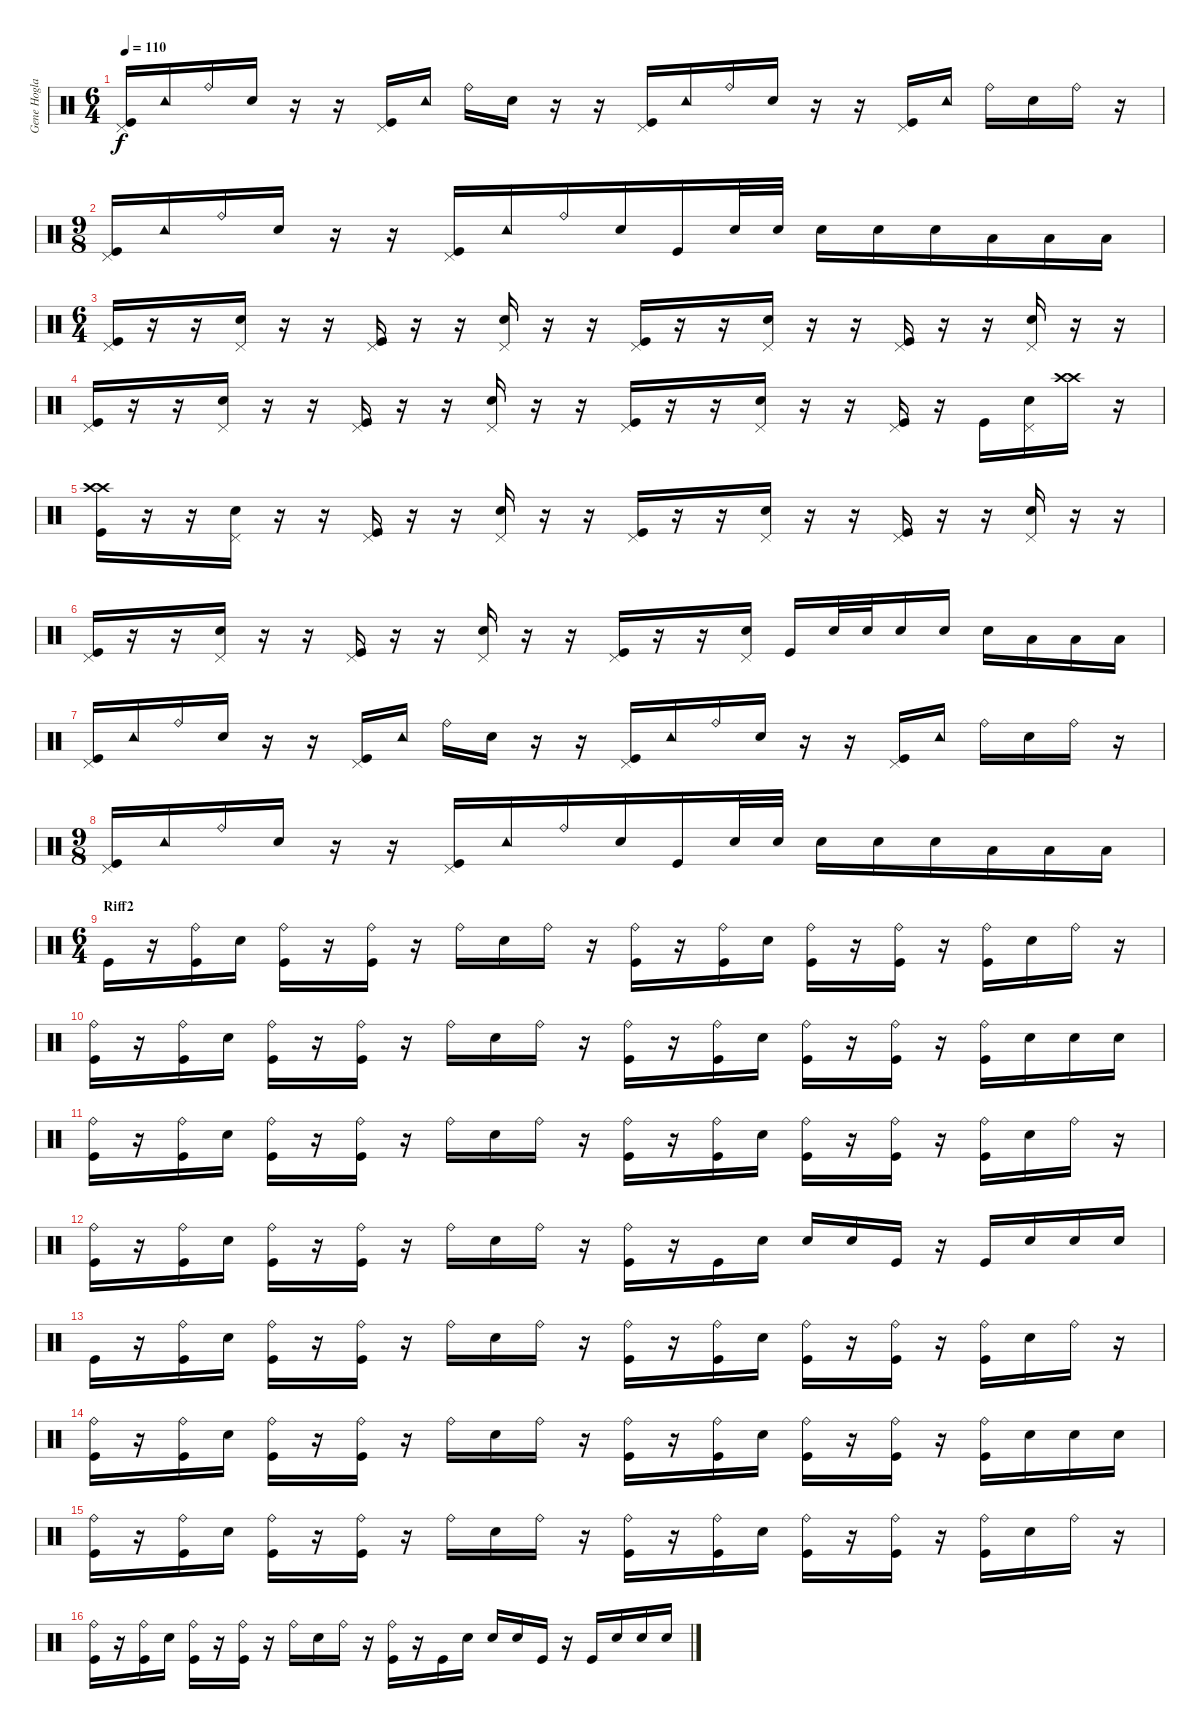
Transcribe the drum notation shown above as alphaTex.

\track ("Gene Hoglan" "Gene Hogla") {instrument percussion}
\staff {score}
\articulation defaults
\ts (6 4)
\tempo 110
\clef neutral
\ks c
("Pedal Hi-Hat (hit)" "Kick (hit)").16{dy f} "Tambourine (hit)".16 "Ride (bell)".16 "Snare (hit) 2".16 r.16 r.16 ("Pedal Hi-Hat (hit)" "Kick (hit)").16 "Tambourine (hit)".16 "Ride (bell)".16 "Snare (hit) 2".16 r.16 r.16 ("Pedal Hi-Hat (hit)" "Kick (hit)").16 "Tambourine (hit)".16 "Ride (bell)".16 "Snare (hit) 2".16 r.16 r.16 ("Pedal Hi-Hat (hit)" "Kick (hit)").16 "Tambourine (hit)".16 "Ride (bell)".16 "Snare (hit) 2".16 "Ride (bell)".16 r.16 |
\ts (9 8)
("Pedal Hi-Hat (hit)" "Kick (hit)").16 "Tambourine (hit)".16 "Ride (bell)".16 "Snare (hit) 2".16 r.16 r.16 ("Pedal Hi-Hat (hit)" "Kick (hit)").16 "Tambourine (hit)".16 "Ride (bell)".16 "Snare (hit) 2".16 "Kick (hit)".16 "Snare (hit) 2".32 "Snare (hit) 2".32 "Snare (hit) 2".16 "Snare (hit) 2".16 "Snare (hit) 2".16 "Low Tom (hit)".16 "Low Tom (hit)".16 "Low Tom (hit)".16 |
\ts (6 4)
("Pedal Hi-Hat (hit)" "Kick (hit)").16 r.16 r.16 ("Pedal Hi-Hat (hit)" "Snare (hit) 2").16 r.16 r.16 ("Pedal Hi-Hat (hit)" "Kick (hit)").16 r.16 r.16 ("Pedal Hi-Hat (hit)" "Snare (hit) 2").16 r.16 r.16 ("Pedal Hi-Hat (hit)" "Kick (hit)").16 r.16 r.16 ("Pedal Hi-Hat (hit)" "Snare (hit) 2").16 r.16 r.16 ("Pedal Hi-Hat (hit)" "Kick (hit)").16 r.16 r.16 ("Pedal Hi-Hat (hit)" "Snare (hit) 2").16 r.16 r.16 |
("Pedal Hi-Hat (hit)" "Kick (hit)").16 r.16 r.16 ("Pedal Hi-Hat (hit)" "Snare (hit) 2").16 r.16 r.16 ("Pedal Hi-Hat (hit)" "Kick (hit)").16 r.16 r.16 ("Pedal Hi-Hat (hit)" "Snare (hit) 2").16 r.16 r.16 ("Pedal Hi-Hat (hit)" "Kick (hit)").16 r.16 r.16 ("Pedal Hi-Hat (hit)" "Snare (hit) 2").16 r.16 r.16 ("Pedal Hi-Hat (hit)" "Kick (hit)").16 r.16 "Kick (hit)".16 ("Pedal Hi-Hat (hit)" "Snare (hit) 2").16 ("Crash high (hit)" "Crash high (hit)").16 r.16 |
("Crash high (hit)" "Crash high (hit)" "Kick (hit)").16 r.16 r.16 ("Pedal Hi-Hat (hit)" "Snare (hit) 2").16 r.16 r.16 ("Pedal Hi-Hat (hit)" "Kick (hit)").16 r.16 r.16 ("Pedal Hi-Hat (hit)" "Snare (hit) 2").16 r.16 r.16 ("Pedal Hi-Hat (hit)" "Kick (hit)").16 r.16 r.16 ("Pedal Hi-Hat (hit)" "Snare (hit) 2").16 r.16 r.16 ("Pedal Hi-Hat (hit)" "Kick (hit)").16 r.16 r.16 ("Pedal Hi-Hat (hit)" "Snare (hit) 2").16 r.16 r.16 |
("Pedal Hi-Hat (hit)" "Kick (hit)").16 r.16 r.16 ("Pedal Hi-Hat (hit)" "Snare (hit) 2").16 r.16 r.16 ("Pedal Hi-Hat (hit)" "Kick (hit)").16 r.16 r.16 ("Pedal Hi-Hat (hit)" "Snare (hit) 2").16 r.16 r.16 ("Pedal Hi-Hat (hit)" "Kick (hit)").16 r.16 r.16 ("Pedal Hi-Hat (hit)" "Snare (hit) 2").16 "Kick (hit)".16 "Snare (hit) 2".32 "Snare (hit) 2".32 "Snare (hit) 2".16 "Snare (hit) 2".16 "Snare (hit) 2".16 "Low Tom (hit)".16 "Low Tom (hit)".16 "Low Tom (hit)".16 |
("Pedal Hi-Hat (hit)" "Kick (hit)").16 "Tambourine (hit)".16 "Ride (bell)".16 "Snare (hit) 2".16 r.16 r.16 ("Pedal Hi-Hat (hit)" "Kick (hit)").16 "Tambourine (hit)".16 "Ride (bell)".16 "Snare (hit) 2".16 r.16 r.16 ("Pedal Hi-Hat (hit)" "Kick (hit)").16 "Tambourine (hit)".16 "Ride (bell)".16 "Snare (hit) 2".16 r.16 r.16 ("Pedal Hi-Hat (hit)" "Kick (hit)").16 "Tambourine (hit)".16 "Ride (bell)".16 "Snare (hit) 2".16 "Ride (bell)".16 r.16 |
\ts (9 8)
("Pedal Hi-Hat (hit)" "Kick (hit)").16 "Tambourine (hit)".16 "Ride (bell)".16 "Snare (hit) 2".16 r.16 r.16 ("Pedal Hi-Hat (hit)" "Kick (hit)").16 "Tambourine (hit)".16 "Ride (bell)".16 "Snare (hit) 2".16 "Kick (hit)".16 "Snare (hit) 2".32 "Snare (hit) 2".32 "Snare (hit) 2".16 "Snare (hit) 2".16 "Snare (hit) 2".16 "Low Tom (hit)".16 "Low Tom (hit)".16 "Low Tom (hit)".16 |
\ts (6 4)
\section ("" "Riff2")
"Kick (hit)".16 r.16 ("Ride (bell)" "Kick (hit)").16 "Snare (hit) 2".16 ("Ride (bell)" "Kick (hit)").16 r.16 ("Ride (bell)" "Kick (hit)").16 r.16 "Ride (bell)".16 "Snare (hit) 2".16 "Ride (bell)".16 r.16 ("Ride (bell)" "Kick (hit)").16 r.16 ("Ride (bell)" "Kick (hit)").16 "Snare (hit) 2".16 ("Ride (bell)" "Kick (hit)").16 r.16 ("Ride (bell)" "Kick (hit)").16 r.16 ("Ride (bell)" "Kick (hit)").16 "Snare (hit) 2".16 "Ride (bell)".16 r.16 |
("Ride (bell)" "Kick (hit)").16 r.16 ("Ride (bell)" "Kick (hit)").16 "Snare (hit) 2".16 ("Ride (bell)" "Kick (hit)").16 r.16 ("Ride (bell)" "Kick (hit)").16 r.16 "Ride (bell)".16 "Snare (hit) 2".16 "Ride (bell)".16 r.16 ("Ride (bell)" "Kick (hit)").16 r.16 ("Ride (bell)" "Kick (hit)").16 "Snare (hit) 2".16 ("Ride (bell)" "Kick (hit)").16 r.16 ("Ride (bell)" "Kick (hit)").16 r.16 ("Ride (bell)" "Kick (hit)").16 "Snare (hit) 2".16 "Snare (hit) 2".16 "Snare (hit) 2".16 |
("Ride (bell)" "Kick (hit)").16 r.16 ("Ride (bell)" "Kick (hit)").16 "Snare (hit) 2".16 ("Ride (bell)" "Kick (hit)").16 r.16 ("Ride (bell)" "Kick (hit)").16 r.16 "Ride (bell)".16 "Snare (hit) 2".16 "Ride (bell)".16 r.16 ("Ride (bell)" "Kick (hit)").16 r.16 ("Ride (bell)" "Kick (hit)").16 "Snare (hit) 2".16 ("Ride (bell)" "Kick (hit)").16 r.16 ("Ride (bell)" "Kick (hit)").16 r.16 ("Ride (bell)" "Kick (hit)").16 "Snare (hit) 2".16 "Ride (bell)".16 r.16 |
("Ride (bell)" "Kick (hit)").16 r.16 ("Ride (bell)" "Kick (hit)").16 "Snare (hit) 2".16 ("Ride (bell)" "Kick (hit)").16 r.16 ("Ride (bell)" "Kick (hit)").16 r.16 "Ride (bell)".16 "Snare (hit) 2".16 "Ride (bell)".16 r.16 ("Ride (bell)" "Kick (hit)").16 r.16 "Kick (hit)".16 "Snare (hit) 2".16 "Snare (hit) 2".16 "Snare (hit) 2".16 "Kick (hit)".16 r.16 "Kick (hit)".16 "Snare (hit) 2".16 "Snare (hit) 2".16 "Snare (hit) 2".16 |
"Kick (hit)".16 r.16 ("Ride (bell)" "Kick (hit)").16 "Snare (hit) 2".16 ("Ride (bell)" "Kick (hit)").16 r.16 ("Ride (bell)" "Kick (hit)").16 r.16 "Ride (bell)".16 "Snare (hit) 2".16 "Ride (bell)".16 r.16 ("Ride (bell)" "Kick (hit)").16 r.16 ("Ride (bell)" "Kick (hit)").16 "Snare (hit) 2".16 ("Ride (bell)" "Kick (hit)").16 r.16 ("Ride (bell)" "Kick (hit)").16 r.16 ("Ride (bell)" "Kick (hit)").16 "Snare (hit) 2".16 "Ride (bell)".16 r.16 |
("Ride (bell)" "Kick (hit)").16 r.16 ("Ride (bell)" "Kick (hit)").16 "Snare (hit) 2".16 ("Ride (bell)" "Kick (hit)").16 r.16 ("Ride (bell)" "Kick (hit)").16 r.16 "Ride (bell)".16 "Snare (hit) 2".16 "Ride (bell)".16 r.16 ("Ride (bell)" "Kick (hit)").16 r.16 ("Ride (bell)" "Kick (hit)").16 "Snare (hit) 2".16 ("Ride (bell)" "Kick (hit)").16 r.16 ("Ride (bell)" "Kick (hit)").16 r.16 ("Ride (bell)" "Kick (hit)").16 "Snare (hit) 2".16 "Snare (hit) 2".16 "Snare (hit) 2".16 |
("Ride (bell)" "Kick (hit)").16 r.16 ("Ride (bell)" "Kick (hit)").16 "Snare (hit) 2".16 ("Ride (bell)" "Kick (hit)").16 r.16 ("Ride (bell)" "Kick (hit)").16 r.16 "Ride (bell)".16 "Snare (hit) 2".16 "Ride (bell)".16 r.16 ("Ride (bell)" "Kick (hit)").16 r.16 ("Ride (bell)" "Kick (hit)").16 "Snare (hit) 2".16 ("Ride (bell)" "Kick (hit)").16 r.16 ("Ride (bell)" "Kick (hit)").16 r.16 ("Ride (bell)" "Kick (hit)").16 "Snare (hit) 2".16 "Ride (bell)".16 r.16 |
("Ride (bell)" "Kick (hit)").16 r.16 ("Ride (bell)" "Kick (hit)").16 "Snare (hit) 2".16 ("Ride (bell)" "Kick (hit)").16 r.16 ("Ride (bell)" "Kick (hit)").16 r.16 "Ride (bell)".16 "Snare (hit) 2".16 "Ride (bell)".16 r.16 ("Ride (bell)" "Kick (hit)").16 r.16 "Kick (hit)".16 "Snare (hit) 2".16 "Snare (hit) 2".16 "Snare (hit) 2".16 "Kick (hit)".16 r.16 "Kick (hit)".16 "Snare (hit) 2".16 "Snare (hit) 2".16 "Snare (hit) 2".16
